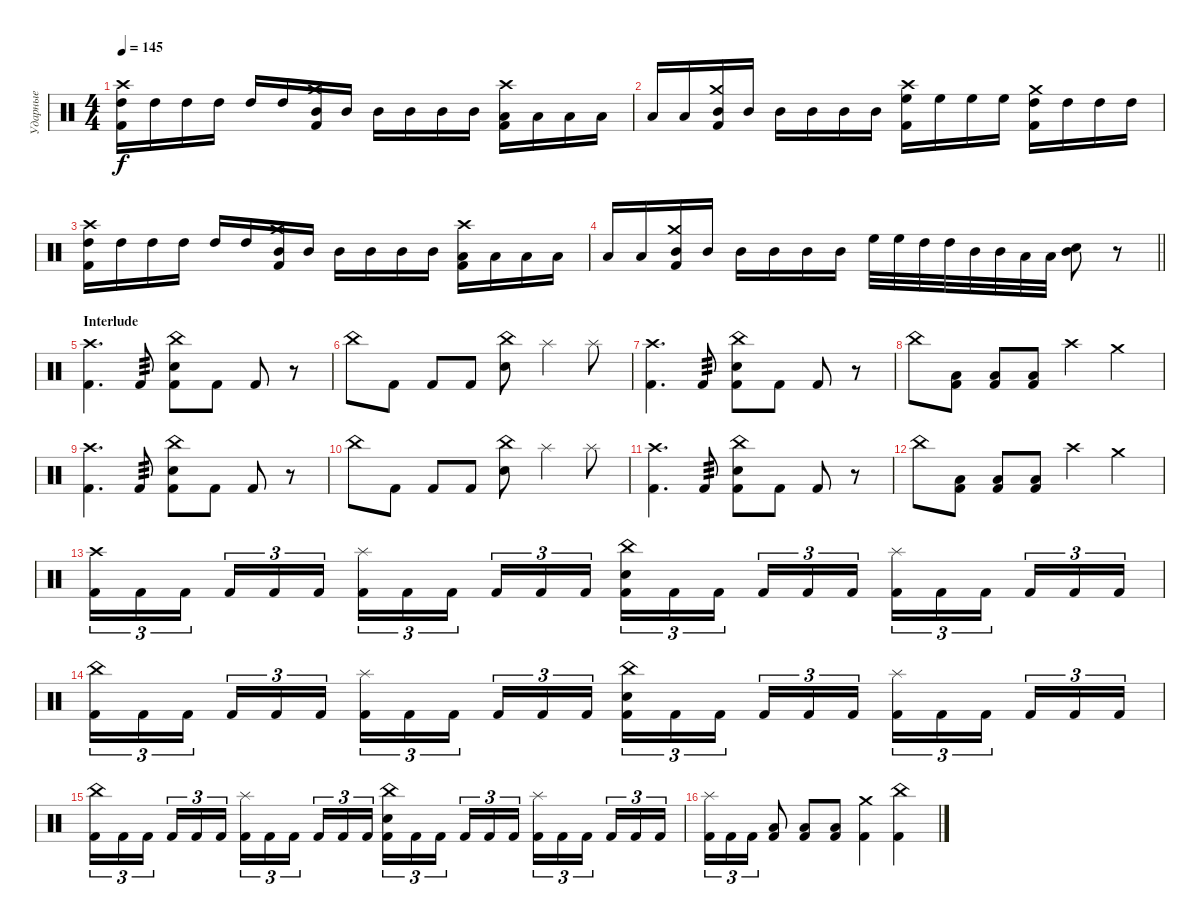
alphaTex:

\track ("Ударные" "Ударные") {instrument percussion}
\staff {score}
\articulation defaults
\ts (4 4)
\tempo 145
\clef neutral
\ks c
("Crash high (hit)" "High Tom (hit)" "Kick (hit) 2").16{dy f} "High Tom (hit)".16 "High Tom (hit)".16 "High Tom (hit)".16 "High Tom (hit)".16 "High Tom (hit)".16 ("Crash medium (hit)" "Mid Tom (hit)" "Kick (hit) 2").16 "Mid Tom (hit)".16 "Mid Tom (hit)".16 "Mid Tom (hit)".16 "Mid Tom (hit)".16 "Mid Tom (hit)".16 ("Crash high (hit)" "Low Tom (hit)" "Kick (hit) 2").16 "Low Tom (hit)".16 "Low Tom (hit)".16 "Low Tom (hit)".16 |
"Low Tom (hit)".16 "Low Tom (hit)".16 ("Crash medium (hit)" "Mid Tom (hit)" "Kick (hit) 2").16 "Mid Tom (hit)".16 "Mid Tom (hit)".16 "Mid Tom (hit)".16 "Mid Tom (hit)".16 "Mid Tom (hit)".16 ("Crash high (hit)" "High Floor Tom (hit)" "Kick (hit) 2").16 "High Floor Tom (hit)".16 "High Floor Tom (hit)".16 "High Floor Tom (hit)".16 ("Crash medium (hit)" "High Tom (hit)" "Kick (hit) 2").16 "High Tom (hit)".16 "High Tom (hit)".16 "High Tom (hit)".16 |
("Crash high (hit)" "High Tom (hit)" "Kick (hit) 2").16 "High Tom (hit)".16 "High Tom (hit)".16 "High Tom (hit)".16 "High Tom (hit)".16 "High Tom (hit)".16 ("Crash medium (hit)" "Mid Tom (hit)" "Kick (hit) 2").16 "Mid Tom (hit)".16 "Mid Tom (hit)".16 "Mid Tom (hit)".16 "Mid Tom (hit)".16 "Mid Tom (hit)".16 ("Crash high (hit)" "Low Tom (hit)" "Kick (hit) 2").16 "Low Tom (hit)".16 "Low Tom (hit)".16 "Low Tom (hit)".16 |
\barLineRight lightlight "Low Tom (hit)".16 "Low Tom (hit)".16
("Crash medium (hit)" "Mid Tom (hit)" "Kick (hit) 2").16 "Mid Tom (hit)".16 "Mid Tom (hit)".16 "Mid Tom (hit)".16 "Mid Tom (hit)".16 "Mid Tom (hit)".16 "High Floor Tom (hit)".32 "High Floor Tom (hit)".32 "High Tom (hit)".32 "High Tom (hit)".32 "Mid Tom (hit)".32 "Mid Tom (hit)".32 "Low Tom (hit)".32 "Low Tom (hit)".32 ("Electric Snare (hit)" "Mid Tom (hit)").8 r.8 |
\section ("" "Interlude")
("Crash high (hit)" "Kick (hit) 2").4{d} "Kick (hit) 2".8{tp 3} ("China (hit)" "Electric Snare (hit)" "Kick (hit) 2").8 "Kick (hit) 2".8 "Kick (hit) 2".8 r.8 |
"China (hit)".8 "Kick (hit) 2".8 "Kick (hit) 2".8 "Kick (hit) 2".8 ("China (hit)" "Electric Snare (hit)").8 "Splash (hit)".4 "Splash (hit)".8 |
("Crash high (hit)" "Kick (hit) 2").4{d} "Kick (hit) 2".8{tp 3} ("China (hit)" "Electric Snare (hit)" "Kick (hit) 2").8 "Kick (hit) 2".8 "Kick (hit) 2".8 r.8 |
"China (hit)".8 ("Low Tom (hit)" "Kick (hit) 2").8 ("Low Tom (hit)" "Kick (hit) 2").8 ("Low Tom (hit)" "Kick (hit) 2").8 "Crash high (hit)".4 "Crash medium (hit)".4 |
("Crash high (hit)" "Kick (hit) 2").4{d} "Kick (hit) 2".8{tp 3} ("China (hit)" "Electric Snare (hit)" "Kick (hit) 2").8 "Kick (hit) 2".8 "Kick (hit) 2".8 r.8 |
"China (hit)".8 "Kick (hit) 2".8 "Kick (hit) 2".8 "Kick (hit) 2".8 ("China (hit)" "Electric Snare (hit)").8 "Splash (hit)".4 "Splash (hit)".8 |
("Crash high (hit)" "Kick (hit) 2").4{d} "Kick (hit) 2".8{tp 3} ("China (hit)" "Electric Snare (hit)" "Kick (hit) 2").8 "Kick (hit) 2".8 "Kick (hit) 2".8 r.8 |
"China (hit)".8 ("Low Tom (hit)" "Kick (hit) 2").8 ("Low Tom (hit)" "Kick (hit) 2").8 ("Low Tom (hit)" "Kick (hit) 2").8 "Crash high (hit)".4 "Crash medium (hit)".4 |
("Crash high (hit)" "Kick (hit) 2").16{tu (3 2)} "Kick (hit) 2".16{tu (3 2)} "Kick (hit) 2".16{tu (3 2) beam splitsecondary} "Kick (hit) 2".16{tu (3 2)} "Kick (hit) 2".16{tu (3 2)} "Kick (hit) 2".16{tu (3 2)} ("Splash (hit)" "Kick (hit) 2").16{tu (3 2)} "Kick (hit) 2".16{tu (3 2)} "Kick (hit) 2".16{tu (3 2) beam splitsecondary} "Kick (hit) 2".16{tu (3 2)} "Kick (hit) 2".16{tu (3 2)} "Kick (hit) 2".16{tu (3 2)} ("China (hit)" "Electric Snare (hit)" "Kick (hit) 2").16{tu (3 2)} "Kick (hit) 2".16{tu (3 2)} "Kick (hit) 2".16{tu (3 2) beam splitsecondary} "Kick (hit) 2".16{tu (3 2)} "Kick (hit) 2".16{tu (3 2)} "Kick (hit) 2".16{tu (3 2)} ("Splash (hit)" "Kick (hit) 2").16{tu (3 2)} "Kick (hit) 2".16{tu (3 2)} "Kick (hit) 2".16{tu (3 2) beam splitsecondary} "Kick (hit) 2".16{tu (3 2)} "Kick (hit) 2".16{tu (3 2)} "Kick (hit) 2".16{tu (3 2)} |
("China (hit)" "Kick (hit) 2").16{tu (3 2)} "Kick (hit) 2".16{tu (3 2)} "Kick (hit) 2".16{tu (3 2) beam splitsecondary} "Kick (hit) 2".16{tu (3 2)} "Kick (hit) 2".16{tu (3 2)} "Kick (hit) 2".16{tu (3 2)} ("Splash (hit)" "Kick (hit) 2").16{tu (3 2)} "Kick (hit) 2".16{tu (3 2)} "Kick (hit) 2".16{tu (3 2) beam splitsecondary} "Kick (hit) 2".16{tu (3 2)} "Kick (hit) 2".16{tu (3 2)} "Kick (hit) 2".16{tu (3 2)} ("China (hit)" "Electric Snare (hit)" "Kick (hit) 2").16{tu (3 2)} "Kick (hit) 2".16{tu (3 2)} "Kick (hit) 2".16{tu (3 2) beam splitsecondary} "Kick (hit) 2".16{tu (3 2)} "Kick (hit) 2".16{tu (3 2)} "Kick (hit) 2".16{tu (3 2)} ("Splash (hit)" "Kick (hit) 2").16{tu (3 2)} "Kick (hit) 2".16{tu (3 2)} "Kick (hit) 2".16{tu (3 2) beam splitsecondary} "Kick (hit) 2".16{tu (3 2)} "Kick (hit) 2".16{tu (3 2)} "Kick (hit) 2".16{tu (3 2)} |
("China (hit)" "Kick (hit) 2").16{tu (3 2)} "Kick (hit) 2".16{tu (3 2)} "Kick (hit) 2".16{tu (3 2) beam splitsecondary} "Kick (hit) 2".16{tu (3 2)} "Kick (hit) 2".16{tu (3 2)} "Kick (hit) 2".16{tu (3 2)} ("Splash (hit)" "Kick (hit) 2").16{tu (3 2)} "Kick (hit) 2".16{tu (3 2)} "Kick (hit) 2".16{tu (3 2) beam splitsecondary} "Kick (hit) 2".16{tu (3 2)} "Kick (hit) 2".16{tu (3 2)} "Kick (hit) 2".16{tu (3 2)} ("China (hit)" "Electric Snare (hit)" "Kick (hit) 2").16{tu (3 2)} "Kick (hit) 2".16{tu (3 2)} "Kick (hit) 2".16{tu (3 2) beam splitsecondary} "Kick (hit) 2".16{tu (3 2)} "Kick (hit) 2".16{tu (3 2)} "Kick (hit) 2".16{tu (3 2)} ("Splash (hit)" "Kick (hit) 2").16{tu (3 2)} "Kick (hit) 2".16{tu (3 2)} "Kick (hit) 2".16{tu (3 2) beam splitsecondary} "Kick (hit) 2".16{tu (3 2)} "Kick (hit) 2".16{tu (3 2)} "Kick (hit) 2".16{tu (3 2)} |
("Splash (hit)" "Kick (hit) 2").16{tu (3 2)} "Kick (hit) 2".16{tu (3 2)} "Kick (hit) 2".16{tu (3 2)} ("Low Tom (hit)" "Kick (hit) 2").8 ("Low Tom (hit)" "Kick (hit) 2").8 ("Low Tom (hit)" "Kick (hit) 2").8 ("Crash medium (hit)" "Kick (hit) 2").4 ("China (hit)" "Kick (hit) 2").4
